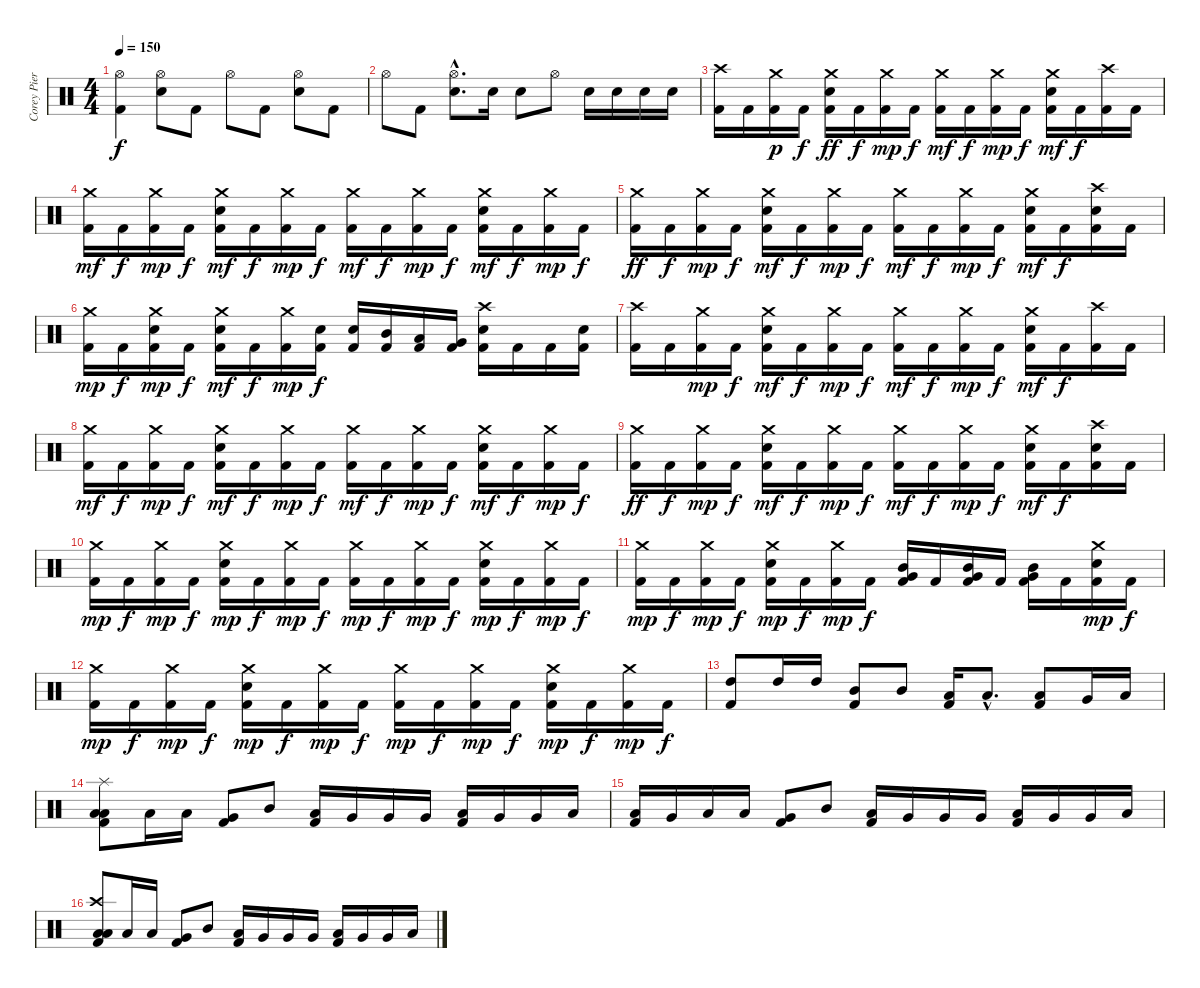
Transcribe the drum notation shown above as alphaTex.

\track ("Corey Pierce" "Corey Pier") {instrument percussion}
\staff {score}
\articulation defaults
\ts (4 4)
\tempo 150
\clef neutral
\ks c
("Hi-Hat (open)" "Kick (hit) 2").4{dy f} ("Hi-Hat (open)" "Electric Snare (hit)").8 "Kick (hit) 2".8 "Hi-Hat (open)".8 "Kick (hit) 2".8 ("Hi-Hat (open)" "Electric Snare (hit)").8 "Kick (hit) 2".8 |
"Hi-Hat (open)".8 "Kick (hit) 2".8 ("Hi-Hat (open)"{hac} "Electric Snare (hit)"{hac}).8{d} "Electric Snare (hit)".16 "Electric Snare (hit)".8 "Hi-Hat (open)".8 "Electric Snare (hit)".16 "Electric Snare (hit)".16 "Electric Snare (hit)".16 "Electric Snare (hit)".16 |
("Crash high (hit)" "Kick (hit) 2").16 "Kick (hit) 2".16 ("Crash medium (hit)" "Kick (hit) 2").16{dy p} "Kick (hit) 2".16{dy f} ("Crash medium (hit)" "Electric Snare (hit)" "Kick (hit) 2").16{dy ff} "Kick (hit) 2".16{dy f} ("Crash medium (hit)" "Kick (hit) 2").16{dy mp} "Kick (hit) 2".16{dy f} ("Crash medium (hit)" "Kick (hit) 2").16{dy mf} "Kick (hit) 2".16{dy f} ("Crash medium (hit)" "Kick (hit) 2").16{dy mp} "Kick (hit) 2".16{dy f} ("Crash medium (hit)" "Electric Snare (hit)" "Kick (hit) 2").16{dy mf} "Kick (hit) 2".16{dy f} ("Crash high (hit)" "Kick (hit) 2").16 "Kick (hit) 2".16 |
("Crash medium (hit)" "Kick (hit) 2").16{dy mf} "Kick (hit) 2".16{dy f} ("Crash medium (hit)" "Kick (hit) 2").16{dy mp} "Kick (hit) 2".16{dy f} ("Crash medium (hit)" "Electric Snare (hit)" "Kick (hit) 2").16{dy mf} "Kick (hit) 2".16{dy f} ("Crash medium (hit)" "Kick (hit) 2").16{dy mp} "Kick (hit) 2".16{dy f} ("Crash medium (hit)" "Kick (hit) 2").16{dy mf} "Kick (hit) 2".16{dy f} ("Crash medium (hit)" "Kick (hit) 2").16{dy mp} "Kick (hit) 2".16{dy f} ("Crash medium (hit)" "Electric Snare (hit)" "Kick (hit) 2").16{dy mf} "Kick (hit) 2".16{dy f} ("Crash medium (hit)" "Kick (hit) 2").16{dy mp} "Kick (hit) 2".16{dy f} |
("Crash medium (hit)" "Kick (hit) 2").16{dy ff} "Kick (hit) 2".16{dy f} ("Crash medium (hit)" "Kick (hit) 2").16{dy mp} "Kick (hit) 2".16{dy f} ("Crash medium (hit)" "Electric Snare (hit)" "Kick (hit) 2").16{dy mf} "Kick (hit) 2".16{dy f} ("Crash medium (hit)" "Kick (hit) 2").16{dy mp} "Kick (hit) 2".16{dy f} ("Crash medium (hit)" "Kick (hit) 2").16{dy mf} "Kick (hit) 2".16{dy f} ("Crash medium (hit)" "Kick (hit) 2").16{dy mp} "Kick (hit) 2".16{dy f} ("Crash medium (hit)" "Electric Snare (hit)" "Kick (hit) 2").16{dy mf} "Kick (hit) 2".16{dy f} ("Crash high (hit)" "Electric Snare (hit)" "Kick (hit) 2").16 "Kick (hit) 2".16 |
("Crash medium (hit)" "Kick (hit) 2").16{dy mp} "Kick (hit) 2".16{dy f} ("Crash medium (hit)" "Electric Snare (hit)" "Kick (hit) 2").16{dy mp} "Kick (hit) 2".16{dy f} ("Crash medium (hit)" "Electric Snare (hit)" "Kick (hit) 2").16{dy mf} "Kick (hit) 2".16{dy f} ("Crash medium (hit)" "Kick (hit) 2").16{dy mp} ("Electric Snare (hit)" "Kick (hit) 2").16{dy f} ("Electric Snare (hit)" "Kick (hit) 2").16 ("Mid Tom (hit)" "Kick (hit) 2").16 ("Low Tom (hit)" "Kick (hit) 2").16 ("Very Low Tom (hit)" "Kick (hit) 2").16 ("Crash high (hit)" "Electric Snare (hit)" "Kick (hit) 2").16 "Kick (hit) 2".16 "Kick (hit) 2".16 ("Electric Snare (hit)" "Kick (hit) 2").16 |
("Crash high (hit)" "Kick (hit) 2").16 "Kick (hit) 2".16 ("Crash medium (hit)" "Kick (hit) 2").16{dy mp} "Kick (hit) 2".16{dy f} ("Crash medium (hit)" "Electric Snare (hit)" "Kick (hit) 2").16{dy mf} "Kick (hit) 2".16{dy f} ("Crash medium (hit)" "Kick (hit) 2").16{dy mp} "Kick (hit) 2".16{dy f} ("Crash medium (hit)" "Kick (hit) 2").16{dy mf} "Kick (hit) 2".16{dy f} ("Crash medium (hit)" "Kick (hit) 2").16{dy mp} "Kick (hit) 2".16{dy f} ("Crash medium (hit)" "Electric Snare (hit)" "Kick (hit) 2").16{dy mf} "Kick (hit) 2".16{dy f} ("Crash high (hit)" "Kick (hit) 2").16 "Kick (hit) 2".16 |
("Crash medium (hit)" "Kick (hit) 2").16{dy mf} "Kick (hit) 2".16{dy f} ("Crash medium (hit)" "Kick (hit) 2").16{dy mp} "Kick (hit) 2".16{dy f} ("Crash medium (hit)" "Electric Snare (hit)" "Kick (hit) 2").16{dy mf} "Kick (hit) 2".16{dy f} ("Crash medium (hit)" "Kick (hit) 2").16{dy mp} "Kick (hit) 2".16{dy f} ("Crash medium (hit)" "Kick (hit) 2").16{dy mf} "Kick (hit) 2".16{dy f} ("Crash medium (hit)" "Kick (hit) 2").16{dy mp} "Kick (hit) 2".16{dy f} ("Crash medium (hit)" "Electric Snare (hit)" "Kick (hit) 2").16{dy mf} "Kick (hit) 2".16{dy f} ("Crash medium (hit)" "Kick (hit) 2").16{dy mp} "Kick (hit) 2".16{dy f} |
("Crash medium (hit)" "Kick (hit) 2").16{dy ff} "Kick (hit) 2".16{dy f} ("Crash medium (hit)" "Kick (hit) 2").16{dy mp} "Kick (hit) 2".16{dy f} ("Crash medium (hit)" "Electric Snare (hit)" "Kick (hit) 2").16{dy mf} "Kick (hit) 2".16{dy f} ("Crash medium (hit)" "Kick (hit) 2").16{dy mp} "Kick (hit) 2".16{dy f} ("Crash medium (hit)" "Kick (hit) 2").16{dy mf} "Kick (hit) 2".16{dy f} ("Crash medium (hit)" "Kick (hit) 2").16{dy mp} "Kick (hit) 2".16{dy f} ("Crash medium (hit)" "Electric Snare (hit)" "Kick (hit) 2").16{dy mf} "Kick (hit) 2".16{dy f} ("Crash high (hit)" "Electric Snare (hit)" "Kick (hit) 2").16 "Kick (hit) 2".16 |
("Crash medium (hit)" "Kick (hit) 2").16{dy mp} "Kick (hit) 2".16{dy f} ("Crash medium (hit)" "Kick (hit) 2").16{dy mp} "Kick (hit) 2".16{dy f} ("Crash medium (hit)" "Electric Snare (hit)" "Kick (hit) 2").16{dy mp} "Kick (hit) 2".16{dy f} ("Crash medium (hit)" "Kick (hit) 2").16{dy mp} "Kick (hit) 2".16{dy f} ("Crash medium (hit)" "Kick (hit) 2").16{dy mp} "Kick (hit) 2".16{dy f} ("Crash medium (hit)" "Kick (hit) 2").16{dy mp} "Kick (hit) 2".16{dy f} ("Crash medium (hit)" "Electric Snare (hit)" "Kick (hit) 2").16{dy mp} "Kick (hit) 2".16{dy f} ("Crash medium (hit)" "Kick (hit) 2").16{dy mp} "Kick (hit) 2".16{dy f} |
("Crash medium (hit)" "Kick (hit) 2").16{dy mp} "Kick (hit) 2".16{dy f} ("Crash medium (hit)" "Kick (hit) 2").16{dy mp} "Kick (hit) 2".16{dy f} ("Crash medium (hit)" "Electric Snare (hit)" "Kick (hit) 2").16{dy mp} "Kick (hit) 2".16{dy f} ("Crash medium (hit)" "Kick (hit) 2").16{dy mp} "Kick (hit) 2".16{dy f} ("Mid Tom (hit)" "Very Low Tom (hit)" "Kick (hit) 2").16 "Kick (hit) 2".16 ("Mid Tom (hit)" "Very Low Tom (hit)" "Kick (hit) 2").16 "Kick (hit) 2".16 ("Mid Tom (hit)" "Very Low Tom (hit)" "Kick (hit) 2").16 "Kick (hit) 2".16 ("Crash medium (hit)" "Electric Snare (hit)" "Kick (hit) 2").16{dy mp} "Kick (hit) 2".16{dy f} |
("Crash medium (hit)" "Kick (hit) 2").16{dy mp} "Kick (hit) 2".16{dy f} ("Crash medium (hit)" "Kick (hit) 2").16{dy mp} "Kick (hit) 2".16{dy f} ("Crash medium (hit)" "Electric Snare (hit)" "Kick (hit) 2").16{dy mp} "Kick (hit) 2".16{dy f} ("Crash medium (hit)" "Kick (hit) 2").16{dy mp} "Kick (hit) 2".16{dy f} ("Crash medium (hit)" "Kick (hit) 2").16{dy mp} "Kick (hit) 2".16{dy f} ("Crash medium (hit)" "Kick (hit) 2").16{dy mp} "Kick (hit) 2".16{dy f} ("Crash medium (hit)" "Electric Snare (hit)" "Kick (hit) 2").16{dy mp} "Kick (hit) 2".16{dy f} ("Crash medium (hit)" "Kick (hit) 2").16{dy mp} "Kick (hit) 2".16{dy f} |
("High Tom (hit)" "Kick (hit) 2").8 "High Tom (hit)".16 "High Tom (hit)".16 ("Mid Tom (hit)" "Kick (hit) 2").8 "Mid Tom (hit)".8 ("Low Tom (hit)" "Kick (hit) 2").16 "Low Tom (hit)"{hac}.8{d} ("Low Tom (hit)" "Kick (hit) 2").8 "Very Low Tom (hit)".16 "Low Floor Tom (hit)".16 |
("Splash (hit)" "Low Tom (hit)" "Low Floor Tom (hit)" "Kick (hit) 2").8 "Low Floor Tom (hit)".16 "Low Tom (hit)".16 ("Very Low Tom (hit)" "Kick (hit) 2").8 "Mid Tom (hit)".8 ("Low Tom (hit)" "Kick (hit) 2").16 "Very Low Tom (hit)".16 "Very Low Tom (hit)".16 "Very Low Tom (hit)".16 ("Low Tom (hit)" "Kick (hit) 2").16 "Very Low Tom (hit)".16 "Very Low Tom (hit)".16 "Low Floor Tom (hit)".16 |
("Low Tom (hit)" "Kick (hit) 2").16 "Very Low Tom (hit)".16 "Low Floor Tom (hit)".16 "Low Tom (hit)".16 ("Very Low Tom (hit)" "Kick (hit) 2").8 "Mid Tom (hit)".8 ("Low Tom (hit)" "Kick (hit) 2").16 "Very Low Tom (hit)".16 "Very Low Tom (hit)".16 "Very Low Tom (hit)".16 ("Low Tom (hit)" "Kick (hit) 2").16 "Very Low Tom (hit)".16 "Very Low Tom (hit)".16 "Low Floor Tom (hit)".16 |
("Crash high (hit)" "Low Tom (hit)" "Low Floor Tom (hit)" "Kick (hit) 2").8 "Low Floor Tom (hit)".16 "Low Tom (hit)".16 ("Very Low Tom (hit)" "Kick (hit) 2").8 "Mid Tom (hit)".8 ("Low Tom (hit)" "Kick (hit) 2").16 "Very Low Tom (hit)".16 "Very Low Tom (hit)".16 "Very Low Tom (hit)".16 ("Low Tom (hit)" "Kick (hit) 2").16 "Very Low Tom (hit)".16 "Very Low Tom (hit)".16 "Low Floor Tom (hit)".16
